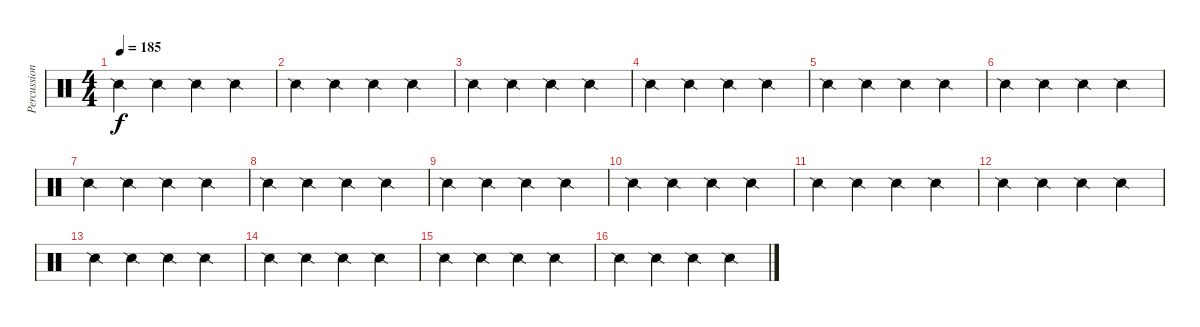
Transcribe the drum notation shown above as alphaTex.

\track ("Percussion" "Percussion") {instrument percussion}
\staff {score}
\articulation defaults
\ts (4 4)
\tempo 185
\clef neutral
\ks c "Snare (side stick) 2".4{dy f} "Snare (side stick) 2".4 "Snare (side stick) 2".4 "Snare (side stick) 2".4
|
"Snare (side stick) 2".4 "Snare (side stick) 2".4 "Snare (side stick) 2".4 "Snare (side stick) 2".4 |
"Snare (side stick) 2".4 "Snare (side stick) 2".4 "Snare (side stick) 2".4 "Snare (side stick) 2".4 |
"Snare (side stick) 2".4 "Snare (side stick) 2".4 "Snare (side stick) 2".4 "Snare (side stick) 2".4 |
"Snare (side stick) 2".4 "Snare (side stick) 2".4 "Snare (side stick) 2".4 "Snare (side stick) 2".4 |
"Snare (side stick) 2".4 "Snare (side stick) 2".4 "Snare (side stick) 2".4 "Snare (side stick) 2".4 |
"Snare (side stick) 2".4 "Snare (side stick) 2".4 "Snare (side stick) 2".4 "Snare (side stick) 2".4 |
"Snare (side stick) 2".4 "Snare (side stick) 2".4 "Snare (side stick) 2".4 "Snare (side stick) 2".4 |
"Snare (side stick) 2".4 "Snare (side stick) 2".4 "Snare (side stick) 2".4 "Snare (side stick) 2".4 |
"Snare (side stick) 2".4 "Snare (side stick) 2".4 "Snare (side stick) 2".4 "Snare (side stick) 2".4 |
"Snare (side stick) 2".4 "Snare (side stick) 2".4 "Snare (side stick) 2".4 "Snare (side stick) 2".4 |
"Snare (side stick) 2".4 "Snare (side stick) 2".4 "Snare (side stick) 2".4 "Snare (side stick) 2".4 |
"Snare (side stick) 2".4 "Snare (side stick) 2".4 "Snare (side stick) 2".4 "Snare (side stick) 2".4 |
"Snare (side stick) 2".4 "Snare (side stick) 2".4 "Snare (side stick) 2".4 "Snare (side stick) 2".4 |
"Snare (side stick) 2".4 "Snare (side stick) 2".4 "Snare (side stick) 2".4 "Snare (side stick) 2".4 |
"Snare (side stick) 2".4 "Snare (side stick) 2".4 "Snare (side stick) 2".4 "Snare (side stick) 2".4
